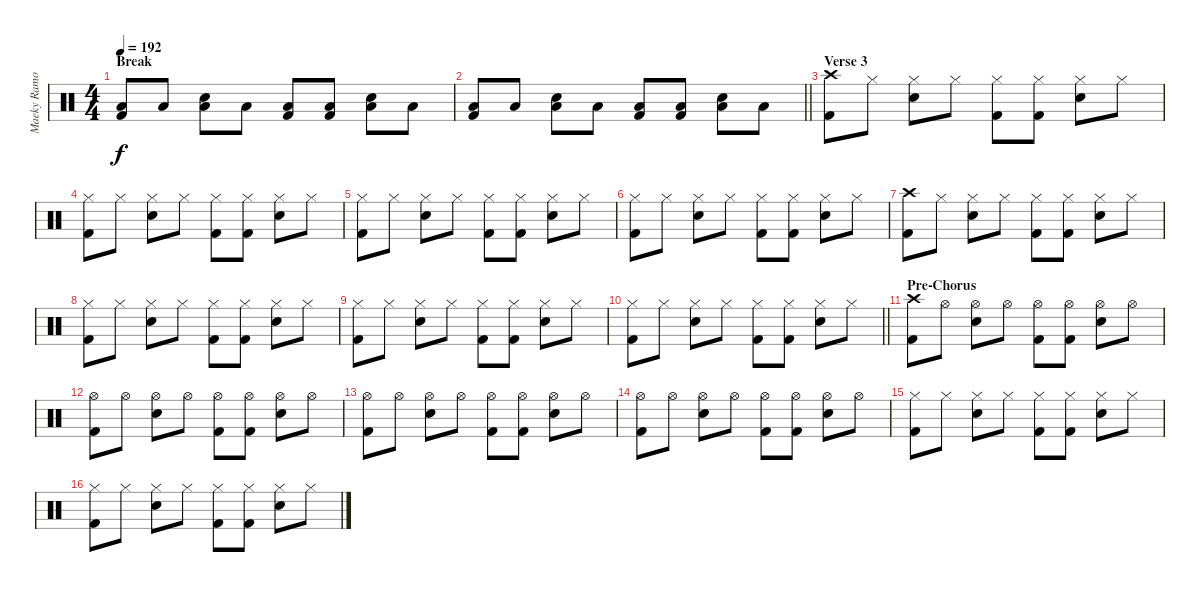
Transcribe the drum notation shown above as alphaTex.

\track ("Maeky Ramone" "Maeky Ramo") {instrument percussion}
\staff {score}
\articulation defaults
\ts (4 4)
\section ("" "Break")
\tempo 192
\clef neutral
\ks c
("Kick (hit) 2" "Low Floor Tom (hit)").8{dy f} "Low Floor Tom (hit)".8 ("Snare (hit) 2" "Low Floor Tom (hit)").8 "Low Floor Tom (hit)".8 ("Kick (hit) 2" "Low Floor Tom (hit)").8 ("Kick (hit) 2" "Low Floor Tom (hit)").8 ("Snare (hit) 2" "Low Floor Tom (hit)").8 "Low Floor Tom (hit)".8 |
\barLineRight lightlight
("Kick (hit) 2" "Low Floor Tom (hit)").8 "Low Floor Tom (hit)".8 ("Snare (hit) 2" "Low Floor Tom (hit)").8 "Low Floor Tom (hit)".8 ("Kick (hit) 2" "Low Floor Tom (hit)").8 ("Kick (hit) 2" "Low Floor Tom (hit)").8 ("Snare (hit) 2" "Low Floor Tom (hit)").8 "Low Floor Tom (hit)".8 |
\section ("" "Verse 3")
("Crash high (hit)" "Kick (hit) 2").8 "Hi-Hat (closed)".8 ("Hi-Hat (closed)" "Snare (hit) 2").8 "Hi-Hat (closed)".8 ("Hi-Hat (closed)" "Kick (hit) 2").8 ("Hi-Hat (closed)" "Kick (hit) 2").8 ("Hi-Hat (closed)" "Snare (hit) 2").8 "Hi-Hat (closed)".8 |
("Hi-Hat (closed)" "Kick (hit) 2").8 "Hi-Hat (closed)".8 ("Hi-Hat (closed)" "Snare (hit) 2").8 "Hi-Hat (closed)".8 ("Hi-Hat (closed)" "Kick (hit) 2").8 ("Hi-Hat (closed)" "Kick (hit) 2").8 ("Hi-Hat (closed)" "Snare (hit) 2").8 "Hi-Hat (closed)".8 |
("Hi-Hat (closed)" "Kick (hit) 2").8 "Hi-Hat (closed)".8 ("Hi-Hat (closed)" "Snare (hit) 2").8 "Hi-Hat (closed)".8 ("Hi-Hat (closed)" "Kick (hit) 2").8 ("Hi-Hat (closed)" "Kick (hit) 2").8 ("Hi-Hat (closed)" "Snare (hit) 2").8 "Hi-Hat (closed)".8 |
("Hi-Hat (closed)" "Kick (hit) 2").8 "Hi-Hat (closed)".8 ("Hi-Hat (closed)" "Snare (hit) 2").8 "Hi-Hat (closed)".8 ("Hi-Hat (closed)" "Kick (hit) 2").8 ("Hi-Hat (closed)" "Kick (hit) 2").8 ("Hi-Hat (closed)" "Snare (hit) 2").8 "Hi-Hat (closed)".8 |
("Crash high (hit)" "Kick (hit) 2").8 "Hi-Hat (closed)".8 ("Hi-Hat (closed)" "Snare (hit) 2").8 "Hi-Hat (closed)".8 ("Hi-Hat (closed)" "Kick (hit) 2").8 ("Hi-Hat (closed)" "Kick (hit) 2").8 ("Hi-Hat (closed)" "Snare (hit) 2").8 "Hi-Hat (closed)".8 |
("Hi-Hat (closed)" "Kick (hit) 2").8 "Hi-Hat (closed)".8 ("Hi-Hat (closed)" "Snare (hit) 2").8 "Hi-Hat (closed)".8 ("Hi-Hat (closed)" "Kick (hit) 2").8 ("Hi-Hat (closed)" "Kick (hit) 2").8 ("Hi-Hat (closed)" "Snare (hit) 2").8 "Hi-Hat (closed)".8 |
("Hi-Hat (closed)" "Kick (hit) 2").8 "Hi-Hat (closed)".8 ("Hi-Hat (closed)" "Snare (hit) 2").8 "Hi-Hat (closed)".8 ("Hi-Hat (closed)" "Kick (hit) 2").8 ("Hi-Hat (closed)" "Kick (hit) 2").8 ("Hi-Hat (closed)" "Snare (hit) 2").8 "Hi-Hat (closed)".8 |
\barLineRight lightlight
("Hi-Hat (closed)" "Kick (hit) 2").8 "Hi-Hat (closed)".8 ("Hi-Hat (closed)" "Snare (hit) 2").8 "Hi-Hat (closed)".8 ("Hi-Hat (closed)" "Kick (hit) 2").8 ("Hi-Hat (closed)" "Kick (hit) 2").8 ("Hi-Hat (closed)" "Snare (hit) 2").8 "Hi-Hat (closed)".8 |
\section ("" "Pre-Chorus")
("Crash high (hit)" "Kick (hit) 2").8 "Hi-Hat (open)".8 ("Hi-Hat (open)" "Snare (hit) 2").8 "Hi-Hat (open)".8 ("Hi-Hat (open)" "Kick (hit) 2").8 ("Hi-Hat (open)" "Kick (hit) 2").8 ("Hi-Hat (open)" "Snare (hit) 2").8 "Hi-Hat (open)".8 |
("Hi-Hat (open)" "Kick (hit) 2").8 "Hi-Hat (open)".8 ("Hi-Hat (open)" "Snare (hit) 2").8 "Hi-Hat (open)".8 ("Hi-Hat (open)" "Kick (hit) 2").8 ("Hi-Hat (open)" "Kick (hit) 2").8 ("Hi-Hat (open)" "Snare (hit) 2").8 "Hi-Hat (open)".8 |
("Hi-Hat (open)" "Kick (hit) 2").8 "Hi-Hat (open)".8 ("Hi-Hat (open)" "Snare (hit) 2").8 "Hi-Hat (open)".8 ("Hi-Hat (open)" "Kick (hit) 2").8 ("Hi-Hat (open)" "Kick (hit) 2").8 ("Hi-Hat (open)" "Snare (hit) 2").8 "Hi-Hat (open)".8 |
("Hi-Hat (open)" "Kick (hit) 2").8 "Hi-Hat (open)".8 ("Hi-Hat (open)" "Snare (hit) 2").8 "Hi-Hat (open)".8 ("Hi-Hat (open)" "Kick (hit) 2").8 ("Hi-Hat (open)" "Kick (hit) 2").8 ("Hi-Hat (open)" "Snare (hit) 2").8 "Hi-Hat (open)".8 |
("Hi-Hat (closed)" "Kick (hit) 2").8 "Hi-Hat (closed)".8 ("Hi-Hat (closed)" "Snare (hit) 2").8 "Hi-Hat (closed)".8 ("Hi-Hat (closed)" "Kick (hit) 2").8 ("Hi-Hat (closed)" "Kick (hit) 2").8 ("Hi-Hat (closed)" "Snare (hit) 2").8 "Hi-Hat (closed)".8 |
("Hi-Hat (closed)" "Kick (hit) 2").8 "Hi-Hat (closed)".8 ("Hi-Hat (closed)" "Snare (hit) 2").8 "Hi-Hat (closed)".8 ("Hi-Hat (closed)" "Kick (hit) 2").8 ("Hi-Hat (closed)" "Kick (hit) 2").8 ("Hi-Hat (closed)" "Snare (hit) 2").8 "Hi-Hat (closed)".8
